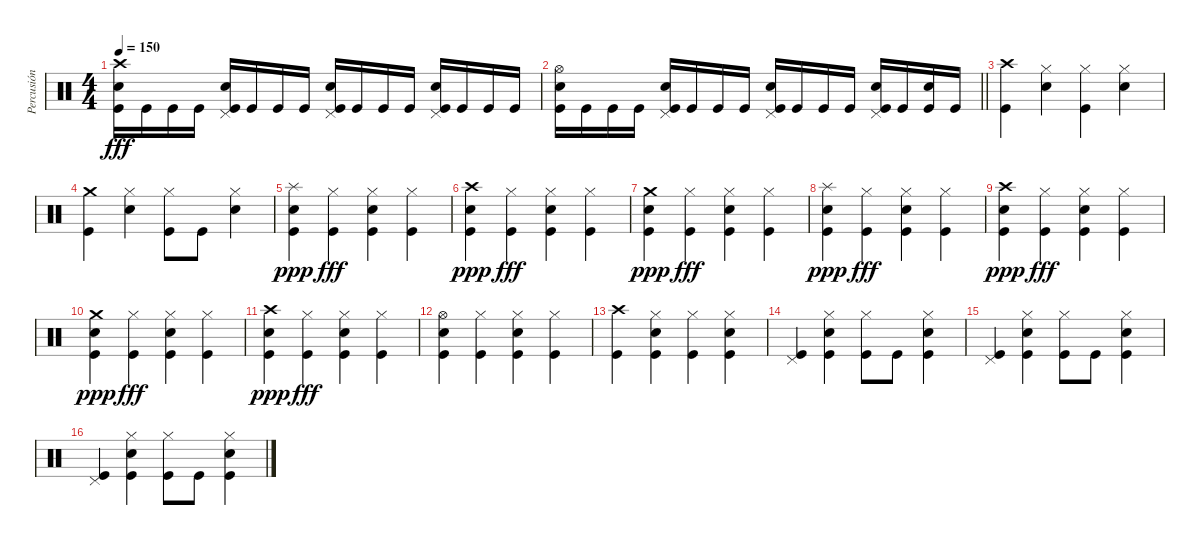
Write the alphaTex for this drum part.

\track ("Percusión" "Percusión") {instrument percussion}
\staff {score}
\articulation defaults
\ts (4 4)
\tempo 150
\clef neutral
\ks c
("Crash high (hit)" "Electric Snare (hit)" "Kick (hit)").16{dy fff} "Kick (hit)".16 "Kick (hit)".16 "Kick (hit)".16 ("Pedal Hi-Hat (hit)" "Electric Snare (hit)" "Kick (hit)").16 "Kick (hit)".16 "Kick (hit)".16 "Kick (hit)".16 ("Pedal Hi-Hat (hit)" "Electric Snare (hit)" "Kick (hit)").16 "Kick (hit)".16 "Kick (hit)".16 "Kick (hit)".16 ("Pedal Hi-Hat (hit)" "Electric Snare (hit)" "Kick (hit)").16 "Kick (hit)".16 "Kick (hit)".16 "Kick (hit)".16 |
\barLineRight lightlight
("Hi-Hat (open)" "Electric Snare (hit)" "Kick (hit)").16 "Kick (hit)".16 "Kick (hit)".16 "Kick (hit)".16 ("Pedal Hi-Hat (hit)" "Electric Snare (hit)" "Kick (hit)").16 "Kick (hit)".16 "Kick (hit)".16 "Kick (hit)".16 ("Pedal Hi-Hat (hit)" "Electric Snare (hit)" "Kick (hit)").16 "Kick (hit)".16 "Kick (hit)".16 "Kick (hit)".16 ("Pedal Hi-Hat (hit)" "Electric Snare (hit)" "Kick (hit)").16 "Kick (hit)".16 ("Electric Snare (hit)" "Kick (hit)").16 "Kick (hit)".16 |
("Crash high (hit)" "Kick (hit)").4 ("Hi-Hat (closed)" "Electric Snare (hit)").4 ("Hi-Hat (closed)" "Kick (hit)").4 ("Hi-Hat (closed)" "Electric Snare (hit)").4 |
("Crash medium (hit)" "Kick (hit)").4 ("Hi-Hat (closed)" "Electric Snare (hit)").4 ("Hi-Hat (closed)" "Kick (hit)").8 "Kick (hit)".8 ("Hi-Hat (closed)" "Electric Snare (hit)").4 |
("Splash (hit)" "Electric Snare (hit)" "Kick (hit)").4{dy ppp} ("Hi-Hat (closed)" "Kick (hit)").4{dy fff} ("Hi-Hat (closed)" "Electric Snare (hit)" "Kick (hit)").4 ("Hi-Hat (closed)" "Kick (hit)").4 |
("Crash high (hit)" "Electric Snare (hit)" "Kick (hit)").4{dy ppp} ("Hi-Hat (closed)" "Kick (hit)").4{dy fff} ("Hi-Hat (closed)" "Electric Snare (hit)" "Kick (hit)").4 ("Hi-Hat (closed)" "Kick (hit)").4 |
("Crash medium (hit)" "Electric Snare (hit)" "Kick (hit)").4{dy ppp} ("Hi-Hat (closed)" "Kick (hit)").4{dy fff} ("Hi-Hat (closed)" "Electric Snare (hit)" "Kick (hit)").4 ("Hi-Hat (closed)" "Kick (hit)").4 |
("Splash (hit)" "Electric Snare (hit)" "Kick (hit)").4{dy ppp} ("Hi-Hat (closed)" "Kick (hit)").4{dy fff} ("Hi-Hat (closed)" "Electric Snare (hit)" "Kick (hit)").4 ("Hi-Hat (closed)" "Kick (hit)").4 |
("Crash high (hit)" "Electric Snare (hit)" "Kick (hit)").4{dy ppp} ("Hi-Hat (closed)" "Kick (hit)").4{dy fff} ("Hi-Hat (closed)" "Electric Snare (hit)" "Kick (hit)").4 ("Hi-Hat (closed)" "Kick (hit)").4 |
("Crash medium (hit)" "Electric Snare (hit)" "Kick (hit)").4{dy ppp} ("Hi-Hat (closed)" "Kick (hit)").4{dy fff} ("Hi-Hat (closed)" "Electric Snare (hit)" "Kick (hit)").4 ("Hi-Hat (closed)" "Kick (hit)").4 |
("Crash high (hit)" "Electric Snare (hit)" "Kick (hit)").4{dy ppp} ("Hi-Hat (closed)" "Kick (hit)").4{dy fff} ("Hi-Hat (closed)" "Electric Snare (hit)" "Kick (hit)").4 ("Hi-Hat (closed)" "Kick (hit)").4 |
("Hi-Hat (open)" "Electric Snare (hit)" "Kick (hit)").4 ("Hi-Hat (closed)" "Kick (hit)").4 ("Hi-Hat (closed)" "Electric Snare (hit)" "Kick (hit)").4 ("Hi-Hat (closed)" "Kick (hit)").4 |
("Crash high (hit)" "Kick (hit)").4 ("Hi-Hat (closed)" "Electric Snare (hit)" "Kick (hit)").4 ("Hi-Hat (closed)" "Kick (hit)").4 ("Hi-Hat (closed)" "Electric Snare (hit)" "Kick (hit)").4 |
("Pedal Hi-Hat (hit)" "Kick (hit)").4 ("Hi-Hat (closed)" "Electric Snare (hit)" "Kick (hit)").4 ("Hi-Hat (closed)" "Kick (hit)").8 "Kick (hit)".8 ("Hi-Hat (closed)" "Electric Snare (hit)" "Kick (hit)").4 |
("Pedal Hi-Hat (hit)" "Kick (hit)").4 ("Hi-Hat (closed)" "Electric Snare (hit)" "Kick (hit)").4 ("Hi-Hat (closed)" "Kick (hit)").8 "Kick (hit)".8 ("Hi-Hat (closed)" "Electric Snare (hit)" "Kick (hit)").4 |
("Pedal Hi-Hat (hit)" "Kick (hit)").4 ("Hi-Hat (closed)" "Electric Snare (hit)" "Kick (hit)").4 ("Hi-Hat (closed)" "Kick (hit)").8 "Kick (hit)".8 ("Hi-Hat (closed)" "Electric Snare (hit)" "Kick (hit)").4
